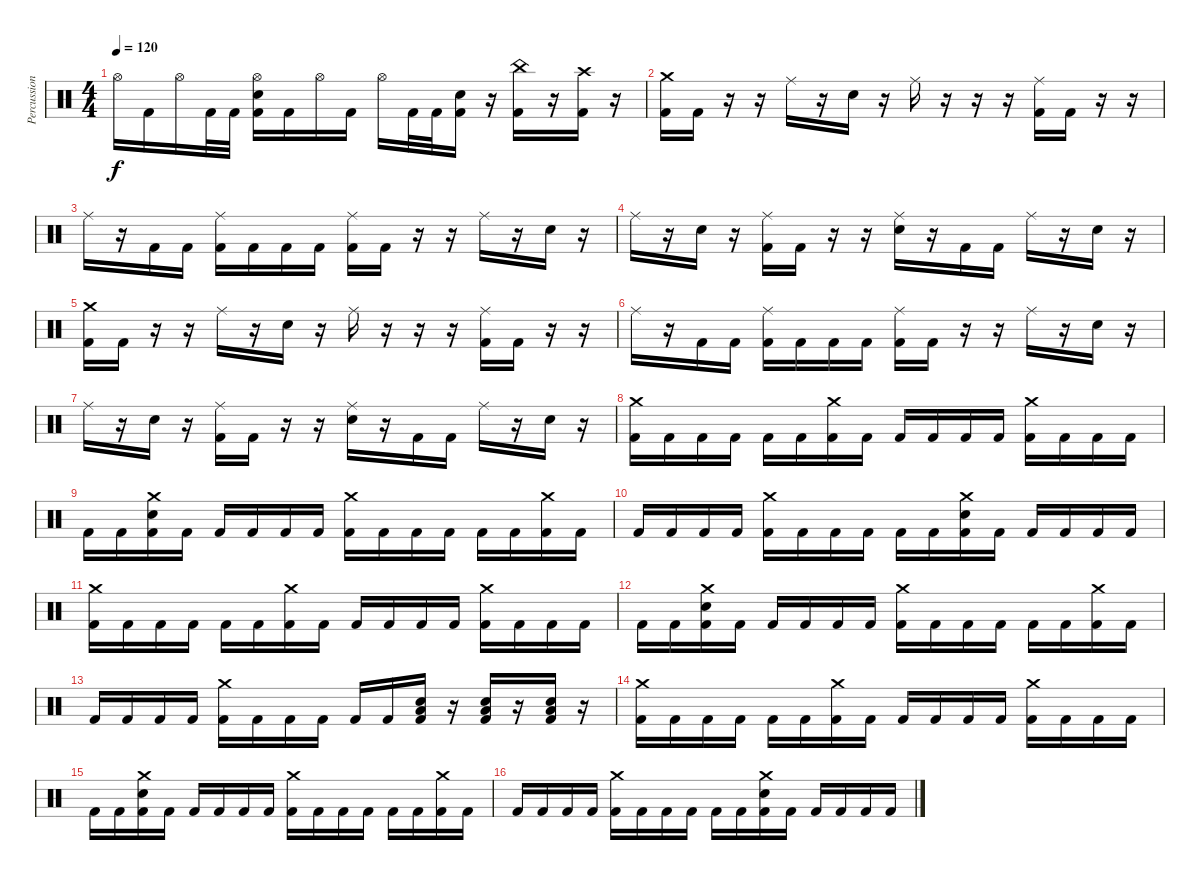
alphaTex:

\track ("Percussion" "Percussion") {instrument percussion}
\staff {score}
\articulation defaults
\ts (4 4)
\tempo 120
\clef neutral
\ks c "Hi-Hat (open)".16{dy f} "Kick (hit) 2".16 "Hi-Hat (open)".16 "Kick (hit) 2".32 "Kick (hit) 2".32
("Hi-Hat (open)" "Electric Snare (hit)" "Kick (hit) 2").16 "Kick (hit) 2".16 "Hi-Hat (open)".16 "Kick (hit) 2".16 "Hi-Hat (open)".16 "Kick (hit) 2".32 "Kick (hit) 2".32 ("Electric Snare (hit)" "Kick (hit) 2").16 r.16 ("China (hit)" "Kick (hit) 2").16 r.16 ("Crash high (hit)" "Kick (hit) 2").16 r.16 |
("Crash medium (hit)" "Kick (hit) 2").16 "Kick (hit) 2".16 r.16 r.16 "Ride (middle)".16 r.16 "Electric Snare (hit)".16 r.16 "Ride (middle)".16 r.16 r.16 r.16 ("Ride (middle)" "Kick (hit) 2").16 "Kick (hit) 2".16 r.16 r.16 |
"Ride (middle)".16 r.16 "Kick (hit) 2".16 "Kick (hit) 2".16 ("Ride (middle)" "Kick (hit) 2").16 "Kick (hit) 2".16 "Kick (hit) 2".16 "Kick (hit) 2".16 ("Ride (middle)" "Kick (hit) 2").16 "Kick (hit) 2".16 r.16 r.16 "Ride (middle)".16 r.16 "Electric Snare (hit)".16 r.16 |
"Ride (middle)".16 r.16 "Electric Snare (hit)".16 r.16 ("Ride (middle)" "Kick (hit) 2").16 "Kick (hit) 2".16 r.16 r.16 ("Ride (middle)" "Electric Snare (hit)").16 r.16 "Kick (hit) 2".16 "Kick (hit) 2".16 "Ride (middle)".16 r.16 "Electric Snare (hit)".16 r.16 |
("Crash medium (hit)" "Kick (hit) 2").16 "Kick (hit) 2".16 r.16 r.16 "Ride (middle)".16 r.16 "Electric Snare (hit)".16 r.16 "Ride (middle)".16 r.16 r.16 r.16 ("Ride (middle)" "Kick (hit) 2").16 "Kick (hit) 2".16 r.16 r.16 |
"Ride (middle)".16 r.16 "Kick (hit) 2".16 "Kick (hit) 2".16 ("Ride (middle)" "Kick (hit) 2").16 "Kick (hit) 2".16 "Kick (hit) 2".16 "Kick (hit) 2".16 ("Ride (middle)" "Kick (hit) 2").16 "Kick (hit) 2".16 r.16 r.16 "Ride (middle)".16 r.16 "Electric Snare (hit)".16 r.16 |
"Ride (middle)".16 r.16 "Electric Snare (hit)".16 r.16 ("Ride (middle)" "Kick (hit) 2").16 "Kick (hit) 2".16 r.16 r.16 ("Ride (middle)" "Electric Snare (hit)").16 r.16 "Kick (hit) 2".16 "Kick (hit) 2".16 "Ride (middle)".16 r.16 "Electric Snare (hit)".16 r.16 |
("Crash medium (hit)" "Kick (hit) 2").16 "Kick (hit) 2".16 "Kick (hit) 2".16 "Kick (hit) 2".16 "Kick (hit) 2".16 "Kick (hit) 2".16 ("Crash medium (hit)" "Kick (hit) 2").16 "Kick (hit) 2".16 "Kick (hit) 2".16 "Kick (hit) 2".16 "Kick (hit) 2".16 "Kick (hit) 2".16 ("Crash medium (hit)" "Kick (hit) 2").16 "Kick (hit) 2".16 "Kick (hit) 2".16 "Kick (hit) 2".16 |
"Kick (hit) 2".16 "Kick (hit) 2".16 ("Crash medium (hit)" "Electric Snare (hit)" "Kick (hit) 2").16 "Kick (hit) 2".16 "Kick (hit) 2".16 "Kick (hit) 2".16 "Kick (hit) 2".16 "Kick (hit) 2".16 ("Crash medium (hit)" "Kick (hit) 2").16 "Kick (hit) 2".16 "Kick (hit) 2".16 "Kick (hit) 2".16 "Kick (hit) 2".16 "Kick (hit) 2".16 ("Crash medium (hit)" "Kick (hit) 2").16 "Kick (hit) 2".16 |
"Kick (hit) 2".16 "Kick (hit) 2".16 "Kick (hit) 2".16 "Kick (hit) 2".16 ("Crash medium (hit)" "Kick (hit) 2").16 "Kick (hit) 2".16 "Kick (hit) 2".16 "Kick (hit) 2".16 "Kick (hit) 2".16 "Kick (hit) 2".16 ("Crash medium (hit)" "Electric Snare (hit)" "Kick (hit) 2").16 "Kick (hit) 2".16 "Kick (hit) 2".16 "Kick (hit) 2".16 "Kick (hit) 2".16 "Kick (hit) 2".16 |
("Crash medium (hit)" "Kick (hit) 2").16 "Kick (hit) 2".16 "Kick (hit) 2".16 "Kick (hit) 2".16 "Kick (hit) 2".16 "Kick (hit) 2".16 ("Crash medium (hit)" "Kick (hit) 2").16 "Kick (hit) 2".16 "Kick (hit) 2".16 "Kick (hit) 2".16 "Kick (hit) 2".16 "Kick (hit) 2".16 ("Crash medium (hit)" "Kick (hit) 2").16 "Kick (hit) 2".16 "Kick (hit) 2".16 "Kick (hit) 2".16 |
"Kick (hit) 2".16 "Kick (hit) 2".16 ("Crash medium (hit)" "Electric Snare (hit)" "Kick (hit) 2").16 "Kick (hit) 2".16 "Kick (hit) 2".16 "Kick (hit) 2".16 "Kick (hit) 2".16 "Kick (hit) 2".16 ("Crash medium (hit)" "Kick (hit) 2").16 "Kick (hit) 2".16 "Kick (hit) 2".16 "Kick (hit) 2".16 "Kick (hit) 2".16 "Kick (hit) 2".16 ("Crash medium (hit)" "Kick (hit) 2").16 "Kick (hit) 2".16 |
"Kick (hit) 2".16 "Kick (hit) 2".16 "Kick (hit) 2".16 "Kick (hit) 2".16 ("Crash medium (hit)" "Kick (hit) 2").16 "Kick (hit) 2".16 "Kick (hit) 2".16 "Kick (hit) 2".16 "Kick (hit) 2".16 "Kick (hit) 2".16 ("Electric Snare (hit)" "Low Floor Tom (hit)" "Kick (hit) 2").16 r.16 ("Electric Snare (hit)" "Low Floor Tom (hit)" "Kick (hit) 2").16 r.16 ("Electric Snare (hit)" "Low Floor Tom (hit)" "Kick (hit) 2").16 r.16 |
("Crash medium (hit)" "Kick (hit) 2").16 "Kick (hit) 2".16 "Kick (hit) 2".16 "Kick (hit) 2".16 "Kick (hit) 2".16 "Kick (hit) 2".16 ("Crash medium (hit)" "Kick (hit) 2").16 "Kick (hit) 2".16 "Kick (hit) 2".16 "Kick (hit) 2".16 "Kick (hit) 2".16 "Kick (hit) 2".16 ("Crash medium (hit)" "Kick (hit) 2").16 "Kick (hit) 2".16 "Kick (hit) 2".16 "Kick (hit) 2".16 |
"Kick (hit) 2".16 "Kick (hit) 2".16 ("Crash medium (hit)" "Electric Snare (hit)" "Kick (hit) 2").16 "Kick (hit) 2".16 "Kick (hit) 2".16 "Kick (hit) 2".16 "Kick (hit) 2".16 "Kick (hit) 2".16 ("Crash medium (hit)" "Kick (hit) 2").16 "Kick (hit) 2".16 "Kick (hit) 2".16 "Kick (hit) 2".16 "Kick (hit) 2".16 "Kick (hit) 2".16 ("Crash medium (hit)" "Kick (hit) 2").16 "Kick (hit) 2".16 |
"Kick (hit) 2".16 "Kick (hit) 2".16 "Kick (hit) 2".16 "Kick (hit) 2".16 ("Crash medium (hit)" "Kick (hit) 2").16 "Kick (hit) 2".16 "Kick (hit) 2".16 "Kick (hit) 2".16 "Kick (hit) 2".16 "Kick (hit) 2".16 ("Crash medium (hit)" "Electric Snare (hit)" "Kick (hit) 2").16 "Kick (hit) 2".16 "Kick (hit) 2".16 "Kick (hit) 2".16 "Kick (hit) 2".16 "Kick (hit) 2".16
